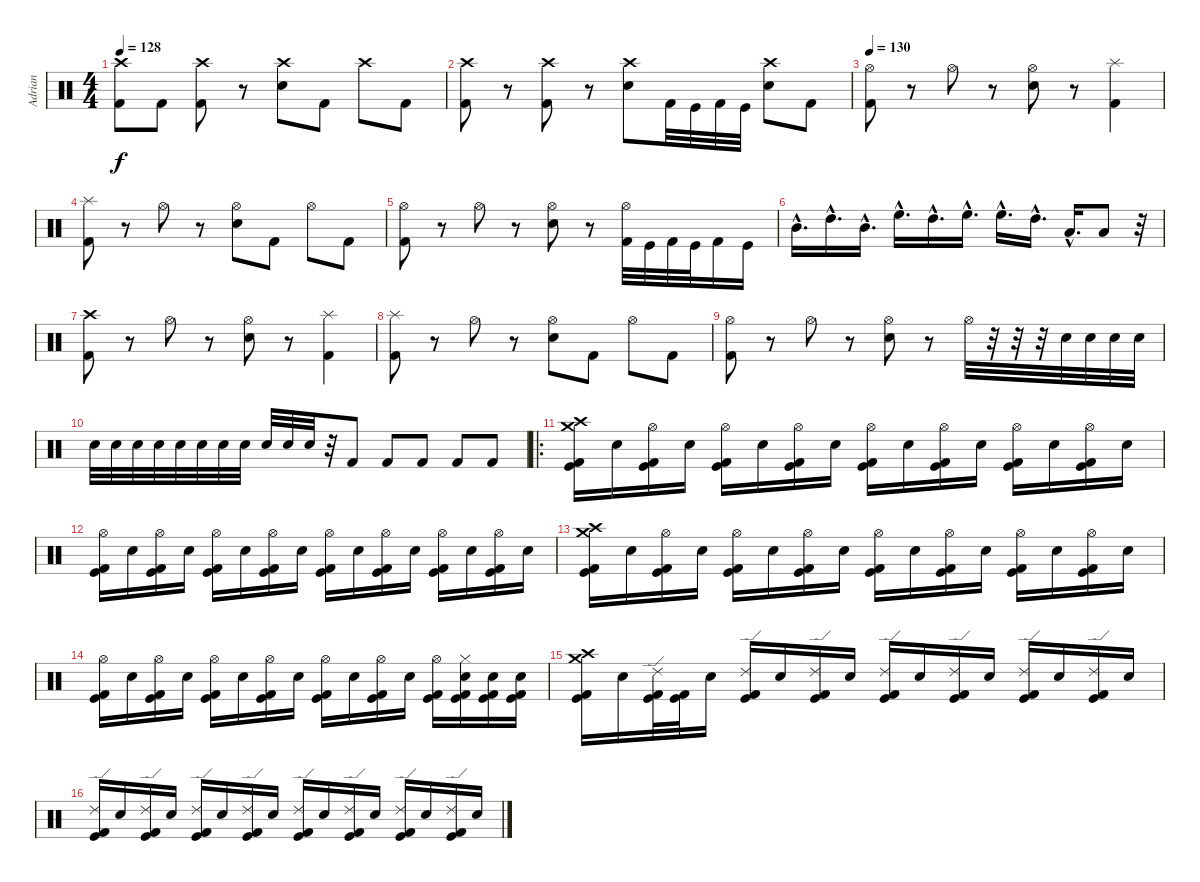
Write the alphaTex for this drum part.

\track ("Adrian" "Adrian") {instrument percussion}
\staff {score}
\articulation defaults
\ts (4 4)
\tempo 128
\clef neutral
\ks c
("Crash high (hit)" "Kick (hit) 2").8{dy f} "Kick (hit) 2".8 ("Crash high (hit)" "Kick (hit) 2").8 r.8 ("Crash high (hit)" "Electric Snare (hit)").8 "Kick (hit) 2".8 "Crash high (hit)".8 "Kick (hit) 2".8 |
("Crash high (hit)" "Kick (hit) 2").8 r.8 ("Crash high (hit)" "Kick (hit) 2").8 r.8 ("Crash high (hit)" "Electric Snare (hit)").8 "Kick (hit) 2".32 "Kick (hit)".32 "Kick (hit) 2".32 "Kick (hit)".32 ("Crash high (hit)" "Electric Snare (hit)").8 "Kick (hit) 2".8 |
\tempo 130
("Hi-Hat (open)" "Kick (hit) 2").8 r.8 "Hi-Hat (open)".8 r.8 ("Hi-Hat (open)" "Electric Snare (hit)").8 r.8 ("Splash (hit)" "Kick (hit) 2").4 |
("Splash (hit)" "Kick (hit) 2").8 r.8 "Hi-Hat (open)".8 r.8 ("Hi-Hat (open)" "Electric Snare (hit)").8 "Kick (hit) 2".8 "Hi-Hat (open)".8 "Kick (hit) 2".8 |
("Hi-Hat (open)" "Kick (hit) 2").8 r.8 "Hi-Hat (open)".8 r.8 ("Hi-Hat (open)" "Electric Snare (hit)").8 r.8 ("Hi-Hat (open)" "Kick (hit) 2").32 "Kick (hit)".32 "Kick (hit) 2".32 "Kick (hit)".32 "Kick (hit) 2".16 "Kick (hit)".16 |
"Mid Tom (hit)"{hac}.16{d} "High Tom (hit)"{hac}.16{d} "Mid Tom (hit)"{hac}.16{d} "High Floor Tom (hit)"{hac}.16{d} "High Tom (hit)"{hac}.16{d} "High Floor Tom (hit)"{hac}.16{d} "High Floor Tom (hit)"{hac}.16{d} "High Tom (hit)"{hac}.16{d} "Low Tom (hit)"{hac}.16{d} "Low Floor Tom (hit)".8 r.32 |
("Crash high (hit)" "Kick (hit) 2").8 r.8 "Hi-Hat (open)".8 r.8 ("Hi-Hat (open)" "Electric Snare (hit)").8 r.8 ("Splash (hit)" "Kick (hit) 2").4 |
("Splash (hit)" "Kick (hit) 2").8 r.8 "Hi-Hat (open)".8 r.8 ("Hi-Hat (open)" "Electric Snare (hit)").8 "Kick (hit) 2".8 "Hi-Hat (open)".8 "Kick (hit) 2".8 |
("Hi-Hat (open)" "Kick (hit) 2").8 r.8 "Hi-Hat (open)".8 r.8 ("Hi-Hat (open)" "Electric Snare (hit)").8 r.8 "Hi-Hat (open)".32 r.32 r.32 r.32 "Electric Snare (hit)".32 "Electric Snare (hit)".32 "Electric Snare (hit)".32 "Electric Snare (hit)".32 |
"Electric Snare (hit)".32 "Electric Snare (hit)".32 "Electric Snare (hit)".32 "Electric Snare (hit)".32 "Electric Snare (hit)".32 "Electric Snare (hit)".32 "Electric Snare (hit)".32 "Electric Snare (hit)".32 "Electric Snare (hit)".32 "Electric Snare (hit)".32 "Electric Snare (hit)".32 r.32 "Kick (hit) 2".8 "Kick (hit) 2".8 "Kick (hit) 2".8 "Kick (hit) 2".8 "Kick (hit) 2".8 |
\ro
("Crash medium (hit)" "Crash high (hit)" "Kick (hit)" "Kick (hit) 2").16 "Electric Snare (hit)".16 ("Hi-Hat (open)" "Kick (hit)" "Kick (hit) 2").16 "Electric Snare (hit)".16 ("Hi-Hat (open)" "Kick (hit)" "Kick (hit) 2").16 "Electric Snare (hit)".16 ("Hi-Hat (open)" "Kick (hit)" "Kick (hit) 2").16 "Electric Snare (hit)".16 ("Hi-Hat (open)" "Kick (hit)" "Kick (hit) 2").16 "Electric Snare (hit)".16 ("Hi-Hat (open)" "Kick (hit)" "Kick (hit) 2").16 "Electric Snare (hit)".16 ("Hi-Hat (open)" "Kick (hit)" "Kick (hit) 2").16 "Electric Snare (hit)".16 ("Hi-Hat (open)" "Kick (hit)" "Kick (hit) 2").16 "Electric Snare (hit)".16 |
("Hi-Hat (open)" "Kick (hit)" "Kick (hit) 2").16 "Electric Snare (hit)".16 ("Hi-Hat (open)" "Kick (hit)" "Kick (hit) 2").16 "Electric Snare (hit)".16 ("Hi-Hat (open)" "Kick (hit)" "Kick (hit) 2").16 "Electric Snare (hit)".16 ("Hi-Hat (open)" "Kick (hit)" "Kick (hit) 2").16 "Electric Snare (hit)".16 ("Hi-Hat (open)" "Kick (hit)" "Kick (hit) 2").16 "Electric Snare (hit)".16 ("Hi-Hat (open)" "Kick (hit)" "Kick (hit) 2").16 "Electric Snare (hit)".16 ("Hi-Hat (open)" "Kick (hit)" "Kick (hit) 2").16 "Electric Snare (hit)".16 ("Hi-Hat (open)" "Kick (hit)" "Kick (hit) 2").16 "Electric Snare (hit)".16 |
("Crash medium (hit)" "Crash high (hit)" "Kick (hit)" "Kick (hit) 2").16 "Electric Snare (hit)".16 ("Hi-Hat (open)" "Kick (hit)" "Kick (hit) 2").16 "Electric Snare (hit)".16 ("Hi-Hat (open)" "Kick (hit)" "Kick (hit) 2").16 "Electric Snare (hit)".16 ("Hi-Hat (open)" "Kick (hit)" "Kick (hit) 2").16 "Electric Snare (hit)".16 ("Hi-Hat (open)" "Kick (hit)" "Kick (hit) 2").16 "Electric Snare (hit)".16 ("Hi-Hat (open)" "Kick (hit)" "Kick (hit) 2").16 "Electric Snare (hit)".16 ("Hi-Hat (open)" "Kick (hit)" "Kick (hit) 2").16 "Electric Snare (hit)".16 ("Hi-Hat (open)" "Kick (hit)" "Kick (hit) 2").16 "Electric Snare (hit)".16 |
("Hi-Hat (open)" "Kick (hit)" "Kick (hit) 2").16 "Electric Snare (hit)".16 ("Hi-Hat (open)" "Kick (hit)" "Kick (hit) 2").16 "Electric Snare (hit)".16 ("Hi-Hat (open)" "Kick (hit)" "Kick (hit) 2").16 "Electric Snare (hit)".16 ("Hi-Hat (open)" "Kick (hit)" "Kick (hit) 2").16 "Electric Snare (hit)".16 ("Hi-Hat (open)" "Kick (hit)" "Kick (hit) 2").16 "Electric Snare (hit)".16 ("Hi-Hat (open)" "Kick (hit)" "Kick (hit) 2").16 "Electric Snare (hit)".16 ("Hi-Hat (open)" "Kick (hit)" "Kick (hit) 2").16 ("Hi-Hat (closed)" "Electric Snare (hit)" "Kick (hit)" "Kick (hit) 2").16 ("Electric Snare (hit)" "Kick (hit)" "Kick (hit) 2").16 ("Electric Snare (hit)" "Kick (hit)" "Kick (hit) 2").16 |
("Crash medium (hit)" "Crash high (hit)" "Kick (hit)" "Kick (hit) 2").16 "Electric Snare (hit)".16 ("Ride (edge) 2" "Kick (hit)" "Kick (hit) 2").32 ("Kick (hit)" "Kick (hit) 2").32 "Electric Snare (hit)".16 ("Ride (edge) 2" "Kick (hit)" "Kick (hit) 2").16 "Electric Snare (hit)".16 ("Ride (edge) 2" "Kick (hit)" "Kick (hit) 2").16 "Electric Snare (hit)".16 ("Ride (edge) 2" "Kick (hit)" "Kick (hit) 2").16 "Electric Snare (hit)".16 ("Ride (edge) 2" "Kick (hit)" "Kick (hit) 2").16 "Electric Snare (hit)".16 ("Ride (edge) 2" "Kick (hit)" "Kick (hit) 2").16 "Electric Snare (hit)".16 ("Ride (edge) 2" "Kick (hit)" "Kick (hit) 2").16 "Electric Snare (hit)".16 |
("Ride (edge) 2" "Kick (hit)" "Kick (hit) 2").16 "Electric Snare (hit)".16 ("Ride (edge) 2" "Kick (hit)" "Kick (hit) 2").16 "Electric Snare (hit)".16 ("Ride (edge) 2" "Kick (hit)" "Kick (hit) 2").16 "Electric Snare (hit)".16 ("Ride (edge) 2" "Kick (hit)" "Kick (hit) 2").16 "Electric Snare (hit)".16 ("Ride (edge) 2" "Kick (hit)" "Kick (hit) 2").16 "Electric Snare (hit)".16 ("Ride (edge) 2" "Kick (hit)" "Kick (hit) 2").16 "Electric Snare (hit)".16 ("Ride (edge) 2" "Kick (hit)" "Kick (hit) 2").16 "Electric Snare (hit)".16 ("Ride (edge) 2" "Kick (hit)" "Kick (hit) 2").16 "Electric Snare (hit)".16
